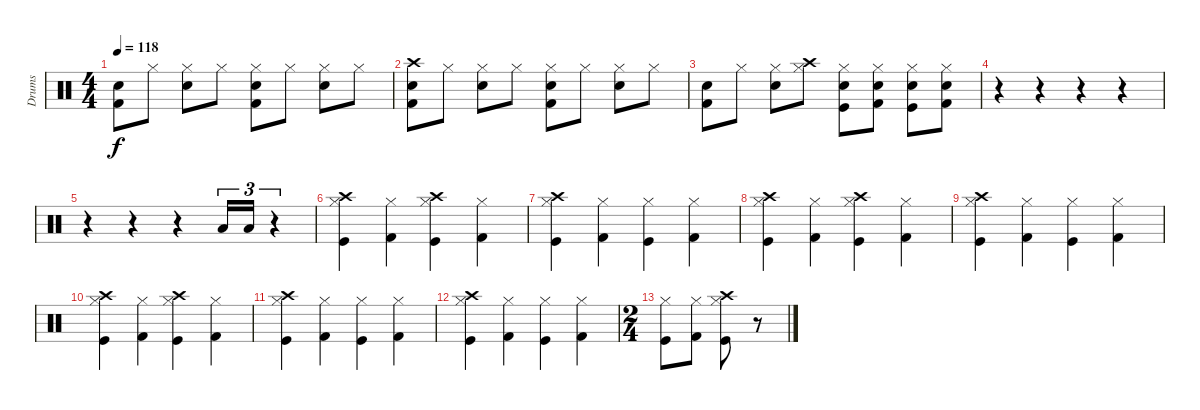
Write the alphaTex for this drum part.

\track ("Drums" "Drums") {instrument percussion}
\staff {score}
\articulation defaults
\ts (4 4)
\tempo 118
\clef neutral
\ks c
("Electric Snare (hit)" "Kick (hit) 2").8{dy f} "Hi-Hat (closed)".8 ("Hi-Hat (closed)" "Electric Snare (hit)").8 "Hi-Hat (closed)".8 ("Hi-Hat (closed)" "Kick (hit) 2" "Electric Snare (hit)").8 "Hi-Hat (closed)".8 ("Hi-Hat (closed)" "Electric Snare (hit)").8 "Hi-Hat (closed)".8 |
("Electric Snare (hit)" "Kick (hit) 2" "Crash high (hit)").8 "Hi-Hat (closed)".8 ("Hi-Hat (closed)" "Electric Snare (hit)").8 "Hi-Hat (closed)".8 ("Hi-Hat (closed)" "Kick (hit) 2" "Electric Snare (hit)").8 "Hi-Hat (closed)".8 ("Hi-Hat (closed)" "Electric Snare (hit)").8 "Hi-Hat (closed)".8 |
("Electric Snare (hit)" "Kick (hit) 2").8 "Hi-Hat (closed)".8 ("Hi-Hat (closed)" "Electric Snare (hit)").8 ("Hi-Hat (closed)" "Crash high (hit)").8 ("Electric Snare (hit)" "Kick (hit)" "Hi-Hat (closed)").8 ("Electric Snare (hit)" "Hi-Hat (closed)" "Kick (hit) 2").8 ("Electric Snare (hit)" "Kick (hit)" "Hi-Hat (closed)").8 ("Electric Snare (hit)" "Hi-Hat (closed)" "Kick (hit) 2").8 |
r.4 r.4 r.4 r.4 |
r.4 r.4 r.4 "Low Tom (hit)".16{tu (3 2)} "Low Tom (hit)".16{tu (3 2)} r.4{tu (3 2)} |
("Crash high (hit)" "Kick (hit)" "Hi-Hat (closed)").4 ("Hi-Hat (closed)" "Kick (hit) 2").4 ("Crash high (hit)" "Kick (hit)" "Hi-Hat (closed)").4 ("Hi-Hat (closed)" "Kick (hit) 2").4 |
("Crash high (hit)" "Kick (hit)" "Hi-Hat (closed)").4 ("Hi-Hat (closed)" "Kick (hit) 2").4 ("Kick (hit)" "Hi-Hat (closed)").4 ("Hi-Hat (closed)" "Kick (hit) 2").4 |
("Crash high (hit)" "Kick (hit)" "Hi-Hat (closed)").4 ("Hi-Hat (closed)" "Kick (hit) 2").4 ("Crash high (hit)" "Kick (hit)" "Hi-Hat (closed)").4 ("Hi-Hat (closed)" "Kick (hit) 2").4 |
("Crash high (hit)" "Kick (hit)" "Hi-Hat (closed)").4 ("Hi-Hat (closed)" "Kick (hit) 2").4 ("Kick (hit)" "Hi-Hat (closed)").4 ("Hi-Hat (closed)" "Kick (hit) 2").4 |
("Crash high (hit)" "Kick (hit)" "Hi-Hat (closed)").4 ("Hi-Hat (closed)" "Kick (hit) 2").4 ("Crash high (hit)" "Kick (hit)" "Hi-Hat (closed)").4 ("Hi-Hat (closed)" "Kick (hit) 2").4 |
("Crash high (hit)" "Kick (hit)" "Hi-Hat (closed)").4 ("Hi-Hat (closed)" "Kick (hit) 2").4 ("Kick (hit)" "Hi-Hat (closed)").4 ("Hi-Hat (closed)" "Kick (hit) 2").4 |
("Crash high (hit)" "Kick (hit)" "Hi-Hat (closed)").4 ("Hi-Hat (closed)" "Kick (hit) 2").4 ("Kick (hit)" "Hi-Hat (closed)").4 ("Hi-Hat (closed)" "Kick (hit) 2").4 |
\ts (2 4)
("Kick (hit)" "Hi-Hat (closed)").8 ("Hi-Hat (closed)" "Kick (hit) 2").8 ("Crash high (hit)" "Kick (hit)" "Hi-Hat (closed)").8 r.8
